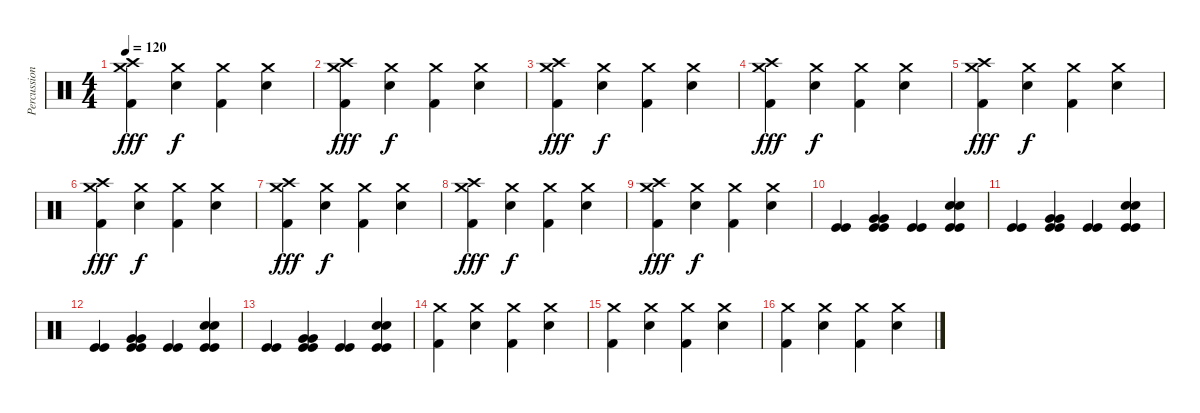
\track ("Percussion" "Percussion") {instrument percussion}
\staff {score}
\articulation defaults
\ts (4 4)
\tempo 120
\clef neutral
\ks c
("Crash medium (hit)" "Kick (hit) 2" "Crash high (hit)").4{dy fff} ("Crash medium (hit)" "Snare (hit) 2").4{dy f} ("Crash medium (hit)" "Kick (hit) 2").4 ("Crash medium (hit)" "Snare (hit) 2").4 |
("Crash medium (hit)" "Kick (hit) 2" "Crash high (hit)").4{dy fff} ("Crash medium (hit)" "Snare (hit) 2").4{dy f} ("Crash medium (hit)" "Kick (hit) 2").4 ("Crash medium (hit)" "Snare (hit) 2").4 |
("Crash medium (hit)" "Kick (hit) 2" "Crash high (hit)").4{dy fff} ("Crash medium (hit)" "Snare (hit) 2").4{dy f} ("Crash medium (hit)" "Kick (hit) 2").4 ("Crash medium (hit)" "Snare (hit) 2").4 |
("Crash medium (hit)" "Kick (hit) 2" "Crash high (hit)").4{dy fff} ("Crash medium (hit)" "Snare (hit) 2").4{dy f} ("Crash medium (hit)" "Kick (hit) 2").4 ("Crash medium (hit)" "Snare (hit) 2").4 |
("Crash medium (hit)" "Kick (hit) 2" "Crash high (hit)").4{dy fff} ("Crash medium (hit)" "Snare (hit) 2").4{dy f} ("Crash medium (hit)" "Kick (hit) 2").4 ("Crash medium (hit)" "Snare (hit) 2").4 |
("Crash medium (hit)" "Kick (hit) 2" "Crash high (hit)").4{dy fff} ("Crash medium (hit)" "Snare (hit) 2").4{dy f} ("Crash medium (hit)" "Kick (hit) 2").4 ("Crash medium (hit)" "Snare (hit) 2").4 |
("Crash medium (hit)" "Kick (hit) 2" "Crash high (hit)").4{dy fff} ("Crash medium (hit)" "Snare (hit) 2").4{dy f} ("Crash medium (hit)" "Kick (hit) 2").4 ("Crash medium (hit)" "Snare (hit) 2").4 |
("Crash medium (hit)" "Kick (hit) 2" "Crash high (hit)").4{dy fff} ("Crash medium (hit)" "Snare (hit) 2").4{dy f} ("Crash medium (hit)" "Kick (hit) 2").4 ("Crash medium (hit)" "Snare (hit) 2").4 |
("Crash medium (hit)" "Kick (hit) 2" "Crash high (hit)").4{dy fff} ("Crash medium (hit)" "Snare (hit) 2").4{dy f} ("Crash medium (hit)" "Kick (hit) 2").4 ("Crash medium (hit)" "Snare (hit) 2").4 |
("Kick (hit)" "Kick (hit)").4 ("Kick (hit)" "Kick (hit)" "Very Low Tom (hit)" "Very Low Tom (hit)").4 ("Kick (hit)" "Kick (hit)").4 ("Kick (hit)" "Kick (hit)" "Snare (hit) 2" "Snare (hit) 2").4 |
("Kick (hit)" "Kick (hit)").4 ("Kick (hit)" "Kick (hit)" "Very Low Tom (hit)" "Very Low Tom (hit)").4 ("Kick (hit)" "Kick (hit)").4 ("Kick (hit)" "Kick (hit)" "Snare (hit) 2" "Snare (hit) 2").4 |
("Kick (hit)" "Kick (hit)").4 ("Kick (hit)" "Kick (hit)" "Very Low Tom (hit)" "Very Low Tom (hit)").4 ("Kick (hit)" "Kick (hit)").4 ("Kick (hit)" "Kick (hit)" "Snare (hit) 2" "Snare (hit) 2").4 |
("Kick (hit)" "Kick (hit)").4 ("Kick (hit)" "Kick (hit)" "Very Low Tom (hit)" "Very Low Tom (hit)").4 ("Kick (hit)" "Kick (hit)").4 ("Kick (hit)" "Kick (hit)" "Snare (hit) 2" "Snare (hit) 2").4 |
("Crash medium (hit)" "Kick (hit) 2").4 ("Crash medium (hit)" "Snare (hit) 2").4 ("Crash medium (hit)" "Kick (hit) 2").4 ("Crash medium (hit)" "Snare (hit) 2").4 |
("Crash medium (hit)" "Kick (hit) 2").4 ("Crash medium (hit)" "Snare (hit) 2").4 ("Crash medium (hit)" "Kick (hit) 2").4 ("Crash medium (hit)" "Snare (hit) 2").4 |
("Crash medium (hit)" "Kick (hit) 2").4 ("Crash medium (hit)" "Snare (hit) 2").4 ("Crash medium (hit)" "Kick (hit) 2").4 ("Crash medium (hit)" "Snare (hit) 2").4
